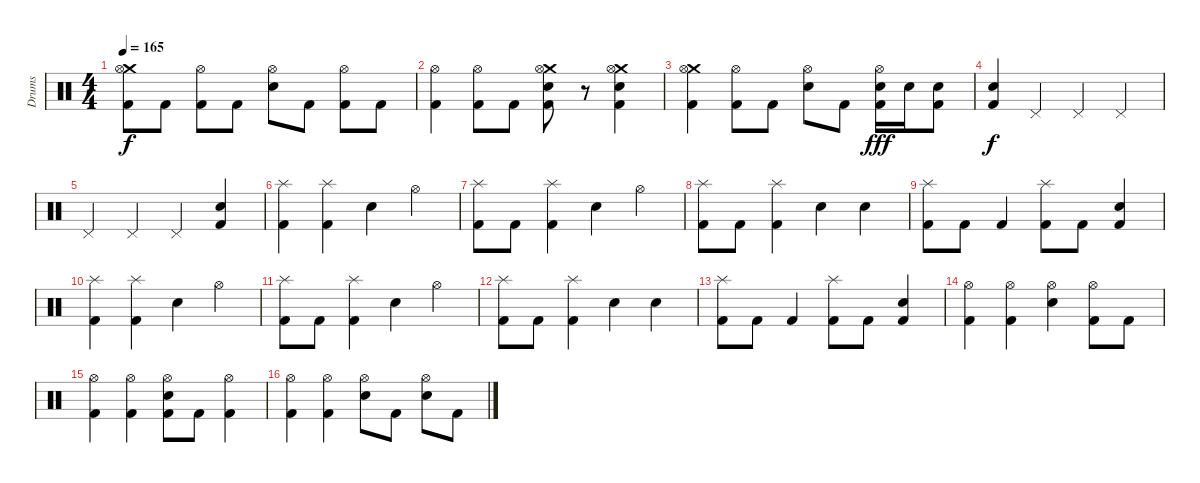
\track ("Drums" "Drums") {instrument percussion}
\staff {score}
\articulation defaults
\ts (4 4)
\tempo 165
\clef neutral
\ks c
("Crash medium (hit)" "Hi-Hat (open)" "Kick (hit) 2").8{dy f} "Kick (hit) 2".8 ("Hi-Hat (open)" "Kick (hit) 2").8 "Kick (hit) 2".8 ("Hi-Hat (open)" "Electric Snare (hit)").8 "Kick (hit) 2".8 ("Hi-Hat (open)" "Kick (hit) 2").8 "Kick (hit) 2".8 |
("Hi-Hat (open)" "Kick (hit) 2").4 ("Hi-Hat (open)" "Kick (hit) 2").8 "Kick (hit) 2".8 ("Crash medium (hit)" "Hi-Hat (open)" "Electric Snare (hit)" "Kick (hit) 2").8 r.8 ("Crash medium (hit)" "Hi-Hat (open)" "Electric Snare (hit)" "Kick (hit) 2").4 |
("Crash medium (hit)" "Hi-Hat (open)" "Kick (hit) 2").4 ("Hi-Hat (open)" "Kick (hit) 2").8 "Kick (hit) 2".8 ("Hi-Hat (open)" "Electric Snare (hit)").8 "Kick (hit) 2".8 ("Hi-Hat (open)" "Electric Snare (hit)" "Kick (hit) 2").16{dy fff} "Electric Snare (hit)".16 ("Electric Snare (hit)" "Kick (hit) 2").8 |
("Electric Snare (hit)" "Kick (hit) 2").4{dy f} "Pedal Hi-Hat (hit)".4 "Pedal Hi-Hat (hit)".4 "Pedal Hi-Hat (hit)".4 |
"Pedal Hi-Hat (hit)".4 "Pedal Hi-Hat (hit)".4 "Pedal Hi-Hat (hit)".4 ("Electric Snare (hit)" "Kick (hit) 2").4 |
("Splash (hit)" "Kick (hit) 2").4 ("Splash (hit)" "Kick (hit) 2").4 "Electric Snare (hit)".4 "Hi-Hat (open)".4 |
("Splash (hit)" "Kick (hit) 2").8 "Kick (hit) 2".8 ("Splash (hit)" "Kick (hit) 2").4 "Electric Snare (hit)".4 "Hi-Hat (open)".4 |
("Splash (hit)" "Kick (hit) 2").8 "Kick (hit) 2".8 ("Splash (hit)" "Kick (hit) 2").4 "Electric Snare (hit)".4 "Electric Snare (hit)".4 |
("Splash (hit)" "Kick (hit) 2").8 "Kick (hit) 2".8 "Kick (hit) 2".4 ("Splash (hit)" "Kick (hit) 2").8 "Kick (hit) 2".8 ("Electric Snare (hit)" "Kick (hit) 2").4 |
("Splash (hit)" "Kick (hit) 2").4 ("Splash (hit)" "Kick (hit) 2").4 "Electric Snare (hit)".4 "Hi-Hat (open)".4 |
("Splash (hit)" "Kick (hit) 2").8 "Kick (hit) 2".8 ("Splash (hit)" "Kick (hit) 2").4 "Electric Snare (hit)".4 "Hi-Hat (open)".4 |
("Splash (hit)" "Kick (hit) 2").8 "Kick (hit) 2".8 ("Splash (hit)" "Kick (hit) 2").4 "Electric Snare (hit)".4 "Electric Snare (hit)".4 |
("Splash (hit)" "Kick (hit) 2").8 "Kick (hit) 2".8 "Kick (hit) 2".4 ("Splash (hit)" "Kick (hit) 2").8 "Kick (hit) 2".8 ("Electric Snare (hit)" "Kick (hit) 2").4 |
("Hi-Hat (open)" "Kick (hit) 2").4 ("Hi-Hat (open)" "Kick (hit) 2").4 ("Hi-Hat (open)" "Electric Snare (hit)").4 ("Hi-Hat (open)" "Kick (hit) 2").8 "Kick (hit) 2".8 |
("Hi-Hat (open)" "Kick (hit) 2").4 ("Hi-Hat (open)" "Kick (hit) 2").4 ("Hi-Hat (open)" "Electric Snare (hit)" "Kick (hit) 2").8 "Kick (hit) 2".8 ("Hi-Hat (open)" "Kick (hit) 2").4 |
("Hi-Hat (open)" "Kick (hit) 2").4 ("Hi-Hat (open)" "Kick (hit) 2").4 ("Hi-Hat (open)" "Electric Snare (hit)").8 "Kick (hit) 2".8 ("Hi-Hat (open)" "Electric Snare (hit)").8 "Kick (hit) 2".8
